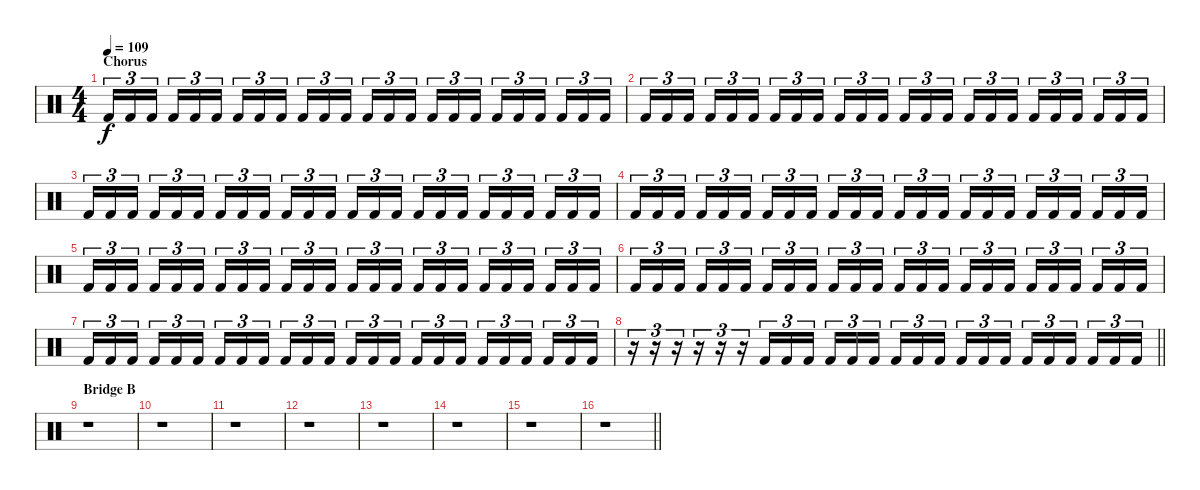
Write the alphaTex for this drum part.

\track "" {instrument percussion}
\staff {score}
\articulation defaults
\ts (4 4)
\section ("" "Chorus")
\tempo 109
\clef neutral
\ks c "Kick (hit) 2".16{tu (3 2) dy f} "Kick (hit) 2".16{tu (3 2)} "Kick (hit) 2".16{tu (3 2) beam splitsecondary} "Kick (hit) 2".16{tu (3 2)} "Kick (hit) 2".16{tu (3 2)} "Kick (hit) 2".16{tu (3 2)} "Kick (hit) 2".16{tu (3 2)} "Kick (hit) 2".16{tu (3 2)} "Kick (hit) 2".16{tu (3 2) beam splitsecondary} "Kick (hit) 2".16{tu (3 2)} "Kick (hit) 2".16{tu (3 2)} "Kick (hit) 2".16{tu (3 2)} "Kick (hit) 2".16{tu (3 2)} "Kick (hit) 2".16{tu (3 2)} "Kick (hit) 2".16{tu (3 2) beam splitsecondary} "Kick (hit) 2".16{tu (3 2)} "Kick (hit) 2".16{tu (3 2)} "Kick (hit) 2".16{tu (3 2)} "Kick (hit) 2".16{tu (3 2)} "Kick (hit) 2".16{tu (3 2)} "Kick (hit) 2".16{tu (3 2) beam splitsecondary} "Kick (hit) 2".16{tu (3 2)} "Kick (hit) 2".16{tu (3 2)} "Kick (hit) 2".16{tu (3 2)}
|
"Kick (hit) 2".16{tu (3 2)} "Kick (hit) 2".16{tu (3 2)} "Kick (hit) 2".16{tu (3 2) beam splitsecondary} "Kick (hit) 2".16{tu (3 2)} "Kick (hit) 2".16{tu (3 2)} "Kick (hit) 2".16{tu (3 2)} "Kick (hit) 2".16{tu (3 2)} "Kick (hit) 2".16{tu (3 2)} "Kick (hit) 2".16{tu (3 2) beam splitsecondary} "Kick (hit) 2".16{tu (3 2)} "Kick (hit) 2".16{tu (3 2)} "Kick (hit) 2".16{tu (3 2)} "Kick (hit) 2".16{tu (3 2)} "Kick (hit) 2".16{tu (3 2)} "Kick (hit) 2".16{tu (3 2) beam splitsecondary} "Kick (hit) 2".16{tu (3 2)} "Kick (hit) 2".16{tu (3 2)} "Kick (hit) 2".16{tu (3 2)} "Kick (hit) 2".16{tu (3 2)} "Kick (hit) 2".16{tu (3 2)} "Kick (hit) 2".16{tu (3 2) beam splitsecondary} "Kick (hit) 2".16{tu (3 2)} "Kick (hit) 2".16{tu (3 2)} "Kick (hit) 2".16{tu (3 2)} |
"Kick (hit) 2".16{tu (3 2)} "Kick (hit) 2".16{tu (3 2)} "Kick (hit) 2".16{tu (3 2) beam splitsecondary} "Kick (hit) 2".16{tu (3 2)} "Kick (hit) 2".16{tu (3 2)} "Kick (hit) 2".16{tu (3 2)} "Kick (hit) 2".16{tu (3 2)} "Kick (hit) 2".16{tu (3 2)} "Kick (hit) 2".16{tu (3 2) beam splitsecondary} "Kick (hit) 2".16{tu (3 2)} "Kick (hit) 2".16{tu (3 2)} "Kick (hit) 2".16{tu (3 2)} "Kick (hit) 2".16{tu (3 2)} "Kick (hit) 2".16{tu (3 2)} "Kick (hit) 2".16{tu (3 2) beam splitsecondary} "Kick (hit) 2".16{tu (3 2)} "Kick (hit) 2".16{tu (3 2)} "Kick (hit) 2".16{tu (3 2)} "Kick (hit) 2".16{tu (3 2)} "Kick (hit) 2".16{tu (3 2)} "Kick (hit) 2".16{tu (3 2) beam splitsecondary} "Kick (hit) 2".16{tu (3 2)} "Kick (hit) 2".16{tu (3 2)} "Kick (hit) 2".16{tu (3 2)} |
"Kick (hit) 2".16{tu (3 2)} "Kick (hit) 2".16{tu (3 2)} "Kick (hit) 2".16{tu (3 2) beam splitsecondary} "Kick (hit) 2".16{tu (3 2)} "Kick (hit) 2".16{tu (3 2)} "Kick (hit) 2".16{tu (3 2)} "Kick (hit) 2".16{tu (3 2)} "Kick (hit) 2".16{tu (3 2)} "Kick (hit) 2".16{tu (3 2) beam splitsecondary} "Kick (hit) 2".16{tu (3 2)} "Kick (hit) 2".16{tu (3 2)} "Kick (hit) 2".16{tu (3 2)} "Kick (hit) 2".16{tu (3 2)} "Kick (hit) 2".16{tu (3 2)} "Kick (hit) 2".16{tu (3 2) beam splitsecondary} "Kick (hit) 2".16{tu (3 2)} "Kick (hit) 2".16{tu (3 2)} "Kick (hit) 2".16{tu (3 2)} "Kick (hit) 2".16{tu (3 2)} "Kick (hit) 2".16{tu (3 2)} "Kick (hit) 2".16{tu (3 2) beam splitsecondary} "Kick (hit) 2".16{tu (3 2)} "Kick (hit) 2".16{tu (3 2)} "Kick (hit) 2".16{tu (3 2)} |
"Kick (hit) 2".16{tu (3 2)} "Kick (hit) 2".16{tu (3 2)} "Kick (hit) 2".16{tu (3 2) beam splitsecondary} "Kick (hit) 2".16{tu (3 2)} "Kick (hit) 2".16{tu (3 2)} "Kick (hit) 2".16{tu (3 2)} "Kick (hit) 2".16{tu (3 2)} "Kick (hit) 2".16{tu (3 2)} "Kick (hit) 2".16{tu (3 2) beam splitsecondary} "Kick (hit) 2".16{tu (3 2)} "Kick (hit) 2".16{tu (3 2)} "Kick (hit) 2".16{tu (3 2)} "Kick (hit) 2".16{tu (3 2)} "Kick (hit) 2".16{tu (3 2)} "Kick (hit) 2".16{tu (3 2) beam splitsecondary} "Kick (hit) 2".16{tu (3 2)} "Kick (hit) 2".16{tu (3 2)} "Kick (hit) 2".16{tu (3 2)} "Kick (hit) 2".16{tu (3 2)} "Kick (hit) 2".16{tu (3 2)} "Kick (hit) 2".16{tu (3 2) beam splitsecondary} "Kick (hit) 2".16{tu (3 2)} "Kick (hit) 2".16{tu (3 2)} "Kick (hit) 2".16{tu (3 2)} |
"Kick (hit) 2".16{tu (3 2)} "Kick (hit) 2".16{tu (3 2)} "Kick (hit) 2".16{tu (3 2) beam splitsecondary} "Kick (hit) 2".16{tu (3 2)} "Kick (hit) 2".16{tu (3 2)} "Kick (hit) 2".16{tu (3 2)} "Kick (hit) 2".16{tu (3 2)} "Kick (hit) 2".16{tu (3 2)} "Kick (hit) 2".16{tu (3 2) beam splitsecondary} "Kick (hit) 2".16{tu (3 2)} "Kick (hit) 2".16{tu (3 2)} "Kick (hit) 2".16{tu (3 2)} "Kick (hit) 2".16{tu (3 2)} "Kick (hit) 2".16{tu (3 2)} "Kick (hit) 2".16{tu (3 2) beam splitsecondary} "Kick (hit) 2".16{tu (3 2)} "Kick (hit) 2".16{tu (3 2)} "Kick (hit) 2".16{tu (3 2)} "Kick (hit) 2".16{tu (3 2)} "Kick (hit) 2".16{tu (3 2)} "Kick (hit) 2".16{tu (3 2) beam splitsecondary} "Kick (hit) 2".16{tu (3 2)} "Kick (hit) 2".16{tu (3 2)} "Kick (hit) 2".16{tu (3 2)} |
"Kick (hit) 2".16{tu (3 2)} "Kick (hit) 2".16{tu (3 2)} "Kick (hit) 2".16{tu (3 2) beam splitsecondary} "Kick (hit) 2".16{tu (3 2)} "Kick (hit) 2".16{tu (3 2)} "Kick (hit) 2".16{tu (3 2)} "Kick (hit) 2".16{tu (3 2)} "Kick (hit) 2".16{tu (3 2)} "Kick (hit) 2".16{tu (3 2) beam splitsecondary} "Kick (hit) 2".16{tu (3 2)} "Kick (hit) 2".16{tu (3 2)} "Kick (hit) 2".16{tu (3 2)} "Kick (hit) 2".16{tu (3 2)} "Kick (hit) 2".16{tu (3 2)} "Kick (hit) 2".16{tu (3 2) beam splitsecondary} "Kick (hit) 2".16{tu (3 2)} "Kick (hit) 2".16{tu (3 2)} "Kick (hit) 2".16{tu (3 2)} "Kick (hit) 2".16{tu (3 2)} "Kick (hit) 2".16{tu (3 2)} "Kick (hit) 2".16{tu (3 2) beam splitsecondary} "Kick (hit) 2".16{tu (3 2)} "Kick (hit) 2".16{tu (3 2)} "Kick (hit) 2".16{tu (3 2)} |
\barLineRight lightlight
r.16{tu (3 2)} r.16{tu (3 2)} r.16{tu (3 2)} r.16{tu (3 2)} r.16{tu (3 2)} r.16{tu (3 2)} "Kick (hit) 2".16{tu (3 2)} "Kick (hit) 2".16{tu (3 2)} "Kick (hit) 2".16{tu (3 2) beam splitsecondary} "Kick (hit) 2".16{tu (3 2)} "Kick (hit) 2".16{tu (3 2)} "Kick (hit) 2".16{tu (3 2)} "Kick (hit) 2".16{tu (3 2)} "Kick (hit) 2".16{tu (3 2)} "Kick (hit) 2".16{tu (3 2) beam splitsecondary} "Kick (hit) 2".16{tu (3 2)} "Kick (hit) 2".16{tu (3 2)} "Kick (hit) 2".16{tu (3 2)} "Kick (hit) 2".16{tu (3 2)} "Kick (hit) 2".16{tu (3 2)} "Kick (hit) 2".16{tu (3 2) beam splitsecondary} "Kick (hit) 2".16{tu (3 2)} "Kick (hit) 2".16{tu (3 2)} "Kick (hit) 2".16{tu (3 2)} |
\section ("" "Bridge B")
r.1 |
r.1 |
r.1 |
r.1 |
r.1 |
r.1 |
r.1 |
\barLineRight lightlight
r.1
